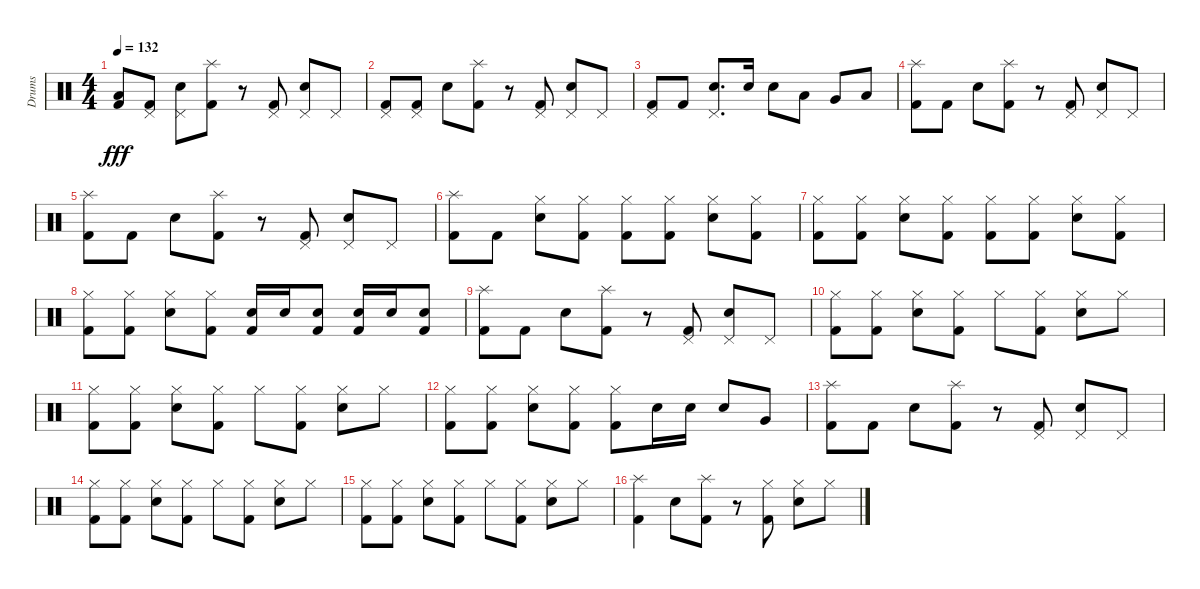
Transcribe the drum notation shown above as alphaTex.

\track ("Drums" "Drums") {instrument percussion}
\staff {score}
\articulation defaults
\ts (4 4)
\tempo 132
\clef neutral
\ks c
("Kick (hit) 2" "Low Tom (hit)").8{dy fff} ("Pedal Hi-Hat (hit)" "Kick (hit) 2").8 ("Pedal Hi-Hat (hit)" "Electric Snare (hit)").8 ("Splash (hit)" "Kick (hit) 2").8 r.8 ("Kick (hit) 2" "Pedal Hi-Hat (hit)").8 ("Electric Snare (hit)" "Pedal Hi-Hat (hit)").8 "Pedal Hi-Hat (hit)".8 |
("Kick (hit) 2" "Pedal Hi-Hat (hit)").8 ("Pedal Hi-Hat (hit)" "Kick (hit) 2").8 "Electric Snare (hit)".8 ("Splash (hit)" "Kick (hit) 2").8 r.8 ("Kick (hit) 2" "Pedal Hi-Hat (hit)").8 ("Electric Snare (hit)" "Pedal Hi-Hat (hit)").8 "Pedal Hi-Hat (hit)".8 |
("Pedal Hi-Hat (hit)" "Kick (hit) 2").8 "Kick (hit) 2".8 ("Pedal Hi-Hat (hit)" "Electric Snare (hit)").8{d} "Electric Snare (hit)".16 "Electric Snare (hit)".8 "Low Tom (hit)".8 "Very Low Tom (hit)".8 "Low Floor Tom (hit)".8 |
("Kick (hit) 2" "Splash (hit)").8 "Kick (hit) 2".8 "Electric Snare (hit)".8 ("Splash (hit)" "Kick (hit) 2").8 r.8 ("Kick (hit) 2" "Pedal Hi-Hat (hit)").8 ("Electric Snare (hit)" "Pedal Hi-Hat (hit)").8 "Pedal Hi-Hat (hit)".8 |
("Kick (hit) 2" "Splash (hit)").8 "Kick (hit) 2".8 "Electric Snare (hit)".8 ("Splash (hit)" "Kick (hit) 2").8 r.8 ("Kick (hit) 2" "Pedal Hi-Hat (hit)").8 ("Electric Snare (hit)" "Pedal Hi-Hat (hit)").8 "Pedal Hi-Hat (hit)".8 |
("Splash (hit)" "Kick (hit) 2").8 "Kick (hit) 2".8 ("Hi-Hat (closed)" "Electric Snare (hit)").8 ("Hi-Hat (closed)" "Kick (hit) 2").8 ("Hi-Hat (closed)" "Kick (hit) 2").8 ("Hi-Hat (closed)" "Kick (hit) 2").8 ("Hi-Hat (closed)" "Electric Snare (hit)").8 ("Hi-Hat (closed)" "Kick (hit) 2").8 |
("Hi-Hat (closed)" "Kick (hit) 2").8 ("Hi-Hat (closed)" "Kick (hit) 2").8 ("Hi-Hat (closed)" "Electric Snare (hit)").8 ("Hi-Hat (closed)" "Kick (hit) 2").8 ("Hi-Hat (closed)" "Kick (hit) 2").8 ("Hi-Hat (closed)" "Kick (hit) 2").8 ("Hi-Hat (closed)" "Electric Snare (hit)").8 ("Hi-Hat (closed)" "Kick (hit) 2").8 |
("Hi-Hat (closed)" "Kick (hit) 2").8 ("Hi-Hat (closed)" "Kick (hit) 2").8 ("Hi-Hat (closed)" "Electric Snare (hit)").8 ("Hi-Hat (closed)" "Kick (hit) 2").8 ("Electric Snare (hit)" "Kick (hit) 2").16 "Electric Snare (hit)".16 ("Kick (hit) 2" "Electric Snare (hit)").8 ("Electric Snare (hit)" "Kick (hit) 2").16 "Electric Snare (hit)".16 ("Kick (hit) 2" "Electric Snare (hit)").8 |
("Kick (hit) 2" "Splash (hit)").8 "Kick (hit) 2".8 "Electric Snare (hit)".8 ("Splash (hit)" "Kick (hit) 2").8 r.8 ("Kick (hit) 2" "Pedal Hi-Hat (hit)").8 ("Electric Snare (hit)" "Pedal Hi-Hat (hit)").8 "Pedal Hi-Hat (hit)".8 |
("Hi-Hat (closed)" "Kick (hit) 2").8 ("Hi-Hat (closed)" "Kick (hit) 2").8 ("Hi-Hat (closed)" "Electric Snare (hit)").8 ("Hi-Hat (closed)" "Kick (hit) 2").8 "Hi-Hat (closed)".8 ("Hi-Hat (closed)" "Kick (hit) 2").8 ("Hi-Hat (closed)" "Electric Snare (hit)").8 "Hi-Hat (closed)".8 |
("Hi-Hat (closed)" "Kick (hit) 2").8 ("Hi-Hat (closed)" "Kick (hit) 2").8 ("Hi-Hat (closed)" "Electric Snare (hit)").8 ("Hi-Hat (closed)" "Kick (hit) 2").8 "Hi-Hat (closed)".8 ("Hi-Hat (closed)" "Kick (hit) 2").8 ("Hi-Hat (closed)" "Electric Snare (hit)").8 "Hi-Hat (closed)".8 |
("Hi-Hat (closed)" "Kick (hit) 2").8 ("Hi-Hat (closed)" "Kick (hit) 2").8 ("Hi-Hat (closed)" "Electric Snare (hit)").8 ("Hi-Hat (closed)" "Kick (hit) 2").8 ("Kick (hit) 2" "Hi-Hat (closed)").8 "Electric Snare (hit)".16 "Electric Snare (hit)".16 "Electric Snare (hit)".8 "Very Low Tom (hit)".8 |
("Kick (hit) 2" "Splash (hit)").8 "Kick (hit) 2".8 "Electric Snare (hit)".8 ("Splash (hit)" "Kick (hit) 2").8 r.8 ("Kick (hit) 2" "Pedal Hi-Hat (hit)").8 ("Electric Snare (hit)" "Pedal Hi-Hat (hit)").8 "Pedal Hi-Hat (hit)".8 |
("Hi-Hat (closed)" "Kick (hit) 2").8 ("Hi-Hat (closed)" "Kick (hit) 2").8 ("Hi-Hat (closed)" "Electric Snare (hit)").8 ("Hi-Hat (closed)" "Kick (hit) 2").8 "Hi-Hat (closed)".8 ("Hi-Hat (closed)" "Kick (hit) 2").8 ("Hi-Hat (closed)" "Electric Snare (hit)").8 "Hi-Hat (closed)".8 |
("Hi-Hat (closed)" "Kick (hit) 2").8 ("Hi-Hat (closed)" "Kick (hit) 2").8 ("Hi-Hat (closed)" "Electric Snare (hit)").8 ("Hi-Hat (closed)" "Kick (hit) 2").8 "Hi-Hat (closed)".8 ("Hi-Hat (closed)" "Kick (hit) 2").8 ("Hi-Hat (closed)" "Electric Snare (hit)").8 "Hi-Hat (closed)".8 |
("Splash (hit)" "Kick (hit) 2").4 "Electric Snare (hit)".8 ("Splash (hit)" "Kick (hit) 2").8 r.8 ("Kick (hit) 2" "Hi-Hat (closed)").8 ("Electric Snare (hit)" "Hi-Hat (closed)").8 "Hi-Hat (closed)".8
